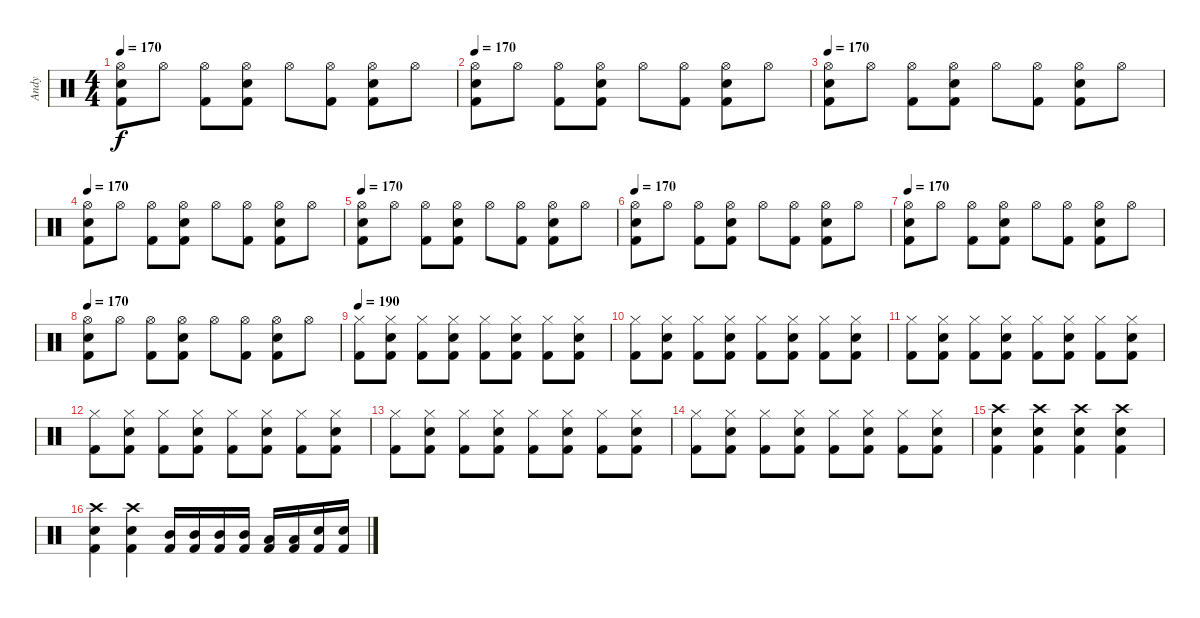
\track ("Andy" "Andy") {instrument percussion}
\staff {score}
\articulation defaults
\ts (4 4)
\tempo 170
\clef neutral
\ks c
("Hi-Hat (open)" "Kick (hit) 2" "Electric Snare (hit)").8{dy f} "Hi-Hat (open)".8 ("Hi-Hat (open)" "Kick (hit) 2").8 ("Hi-Hat (open)" "Kick (hit) 2" "Electric Snare (hit)").8 "Hi-Hat (open)".8 ("Hi-Hat (open)" "Kick (hit) 2").8 ("Hi-Hat (open)" "Kick (hit) 2" "Electric Snare (hit)").8 "Hi-Hat (open)".8 |
\tempo 170
("Hi-Hat (open)" "Kick (hit) 2" "Electric Snare (hit)").8 "Hi-Hat (open)".8 ("Hi-Hat (open)" "Kick (hit) 2").8 ("Hi-Hat (open)" "Kick (hit) 2" "Electric Snare (hit)").8 "Hi-Hat (open)".8 ("Hi-Hat (open)" "Kick (hit) 2").8 ("Hi-Hat (open)" "Kick (hit) 2" "Electric Snare (hit)").8 "Hi-Hat (open)".8 |
\tempo 170
("Hi-Hat (open)" "Kick (hit) 2" "Electric Snare (hit)").8 "Hi-Hat (open)".8 ("Hi-Hat (open)" "Kick (hit) 2").8 ("Hi-Hat (open)" "Kick (hit) 2" "Electric Snare (hit)").8 "Hi-Hat (open)".8 ("Hi-Hat (open)" "Kick (hit) 2").8 ("Hi-Hat (open)" "Kick (hit) 2" "Electric Snare (hit)").8 "Hi-Hat (open)".8 |
\tempo 170
("Hi-Hat (open)" "Kick (hit) 2" "Electric Snare (hit)").8 "Hi-Hat (open)".8 ("Hi-Hat (open)" "Kick (hit) 2").8 ("Hi-Hat (open)" "Kick (hit) 2" "Electric Snare (hit)").8 "Hi-Hat (open)".8 ("Hi-Hat (open)" "Kick (hit) 2").8 ("Hi-Hat (open)" "Kick (hit) 2" "Electric Snare (hit)").8 "Hi-Hat (open)".8 |
\tempo 170
("Hi-Hat (open)" "Kick (hit) 2" "Electric Snare (hit)").8 "Hi-Hat (open)".8 ("Hi-Hat (open)" "Kick (hit) 2").8 ("Hi-Hat (open)" "Kick (hit) 2" "Electric Snare (hit)").8 "Hi-Hat (open)".8 ("Hi-Hat (open)" "Kick (hit) 2").8 ("Hi-Hat (open)" "Kick (hit) 2" "Electric Snare (hit)").8 "Hi-Hat (open)".8 |
\tempo 170
("Hi-Hat (open)" "Kick (hit) 2" "Electric Snare (hit)").8 "Hi-Hat (open)".8 ("Hi-Hat (open)" "Kick (hit) 2").8 ("Hi-Hat (open)" "Kick (hit) 2" "Electric Snare (hit)").8 "Hi-Hat (open)".8 ("Hi-Hat (open)" "Kick (hit) 2").8 ("Hi-Hat (open)" "Kick (hit) 2" "Electric Snare (hit)").8 "Hi-Hat (open)".8 |
\tempo 170
("Hi-Hat (open)" "Kick (hit) 2" "Electric Snare (hit)").8 "Hi-Hat (open)".8 ("Hi-Hat (open)" "Kick (hit) 2").8 ("Hi-Hat (open)" "Kick (hit) 2" "Electric Snare (hit)").8 "Hi-Hat (open)".8 ("Hi-Hat (open)" "Kick (hit) 2").8 ("Hi-Hat (open)" "Kick (hit) 2" "Electric Snare (hit)").8 "Hi-Hat (open)".8 |
\tempo 170
("Hi-Hat (open)" "Kick (hit) 2" "Electric Snare (hit)").8 "Hi-Hat (open)".8 ("Hi-Hat (open)" "Kick (hit) 2").8 ("Hi-Hat (open)" "Kick (hit) 2" "Electric Snare (hit)").8 "Hi-Hat (open)".8 ("Hi-Hat (open)" "Kick (hit) 2").8 ("Hi-Hat (open)" "Kick (hit) 2" "Electric Snare (hit)").8 "Hi-Hat (open)".8 |
\tempo 190
("Hi-Hat (closed)" "Kick (hit) 2").8 ("Hi-Hat (closed)" "Electric Snare (hit)" "Kick (hit) 2").8 ("Hi-Hat (closed)" "Kick (hit) 2").8 ("Hi-Hat (closed)" "Electric Snare (hit)" "Kick (hit) 2").8 ("Hi-Hat (closed)" "Kick (hit) 2").8 ("Hi-Hat (closed)" "Electric Snare (hit)" "Kick (hit) 2").8 ("Hi-Hat (closed)" "Kick (hit) 2").8 ("Hi-Hat (closed)" "Electric Snare (hit)" "Kick (hit) 2").8 |
("Hi-Hat (closed)" "Kick (hit) 2").8 ("Hi-Hat (closed)" "Electric Snare (hit)" "Kick (hit) 2").8 ("Hi-Hat (closed)" "Kick (hit) 2").8 ("Hi-Hat (closed)" "Electric Snare (hit)" "Kick (hit) 2").8 ("Hi-Hat (closed)" "Kick (hit) 2").8 ("Hi-Hat (closed)" "Electric Snare (hit)" "Kick (hit) 2").8 ("Hi-Hat (closed)" "Kick (hit) 2").8 ("Hi-Hat (closed)" "Electric Snare (hit)" "Kick (hit) 2").8 |
("Hi-Hat (closed)" "Kick (hit) 2").8 ("Hi-Hat (closed)" "Electric Snare (hit)" "Kick (hit) 2").8 ("Hi-Hat (closed)" "Kick (hit) 2").8 ("Hi-Hat (closed)" "Electric Snare (hit)" "Kick (hit) 2").8 ("Hi-Hat (closed)" "Kick (hit) 2").8 ("Hi-Hat (closed)" "Electric Snare (hit)" "Kick (hit) 2").8 ("Hi-Hat (closed)" "Kick (hit) 2").8 ("Hi-Hat (closed)" "Electric Snare (hit)" "Kick (hit) 2").8 |
("Hi-Hat (closed)" "Kick (hit) 2").8 ("Hi-Hat (closed)" "Electric Snare (hit)" "Kick (hit) 2").8 ("Hi-Hat (closed)" "Kick (hit) 2").8 ("Hi-Hat (closed)" "Electric Snare (hit)" "Kick (hit) 2").8 ("Hi-Hat (closed)" "Kick (hit) 2").8 ("Hi-Hat (closed)" "Electric Snare (hit)" "Kick (hit) 2").8 ("Hi-Hat (closed)" "Kick (hit) 2").8 ("Hi-Hat (closed)" "Electric Snare (hit)" "Kick (hit) 2").8 |
("Hi-Hat (closed)" "Kick (hit) 2").8 ("Hi-Hat (closed)" "Electric Snare (hit)" "Kick (hit) 2").8 ("Hi-Hat (closed)" "Kick (hit) 2").8 ("Hi-Hat (closed)" "Electric Snare (hit)" "Kick (hit) 2").8 ("Hi-Hat (closed)" "Kick (hit) 2").8 ("Hi-Hat (closed)" "Electric Snare (hit)" "Kick (hit) 2").8 ("Hi-Hat (closed)" "Kick (hit) 2").8 ("Hi-Hat (closed)" "Electric Snare (hit)" "Kick (hit) 2").8 |
("Hi-Hat (closed)" "Kick (hit) 2").8 ("Hi-Hat (closed)" "Electric Snare (hit)" "Kick (hit) 2").8 ("Hi-Hat (closed)" "Kick (hit) 2").8 ("Hi-Hat (closed)" "Electric Snare (hit)" "Kick (hit) 2").8 ("Hi-Hat (closed)" "Kick (hit) 2").8 ("Hi-Hat (closed)" "Electric Snare (hit)" "Kick (hit) 2").8 ("Hi-Hat (closed)" "Kick (hit) 2").8 ("Hi-Hat (closed)" "Electric Snare (hit)" "Kick (hit) 2").8 |
("Kick (hit) 2" "Crash high (hit)" "Electric Snare (hit)").4 ("Kick (hit) 2" "Crash high (hit)" "Electric Snare (hit)").4 ("Kick (hit) 2" "Crash high (hit)" "Electric Snare (hit)").4 ("Kick (hit) 2" "Crash high (hit)" "Electric Snare (hit)").4 |
("Kick (hit) 2" "Crash high (hit)" "Electric Snare (hit)").4 ("Kick (hit) 2" "Crash high (hit)" "Electric Snare (hit)").4 ("Mid Tom (hit)" "Kick (hit) 2").16 ("Mid Tom (hit)" "Kick (hit) 2").16 ("Mid Tom (hit)" "Kick (hit) 2").16 ("Mid Tom (hit)" "Kick (hit) 2").16 ("Low Tom (hit)" "Kick (hit) 2").16 ("Low Tom (hit)" "Kick (hit) 2").16 ("Electric Snare (hit)" "Kick (hit) 2").16 ("Electric Snare (hit)" "Kick (hit) 2").16
